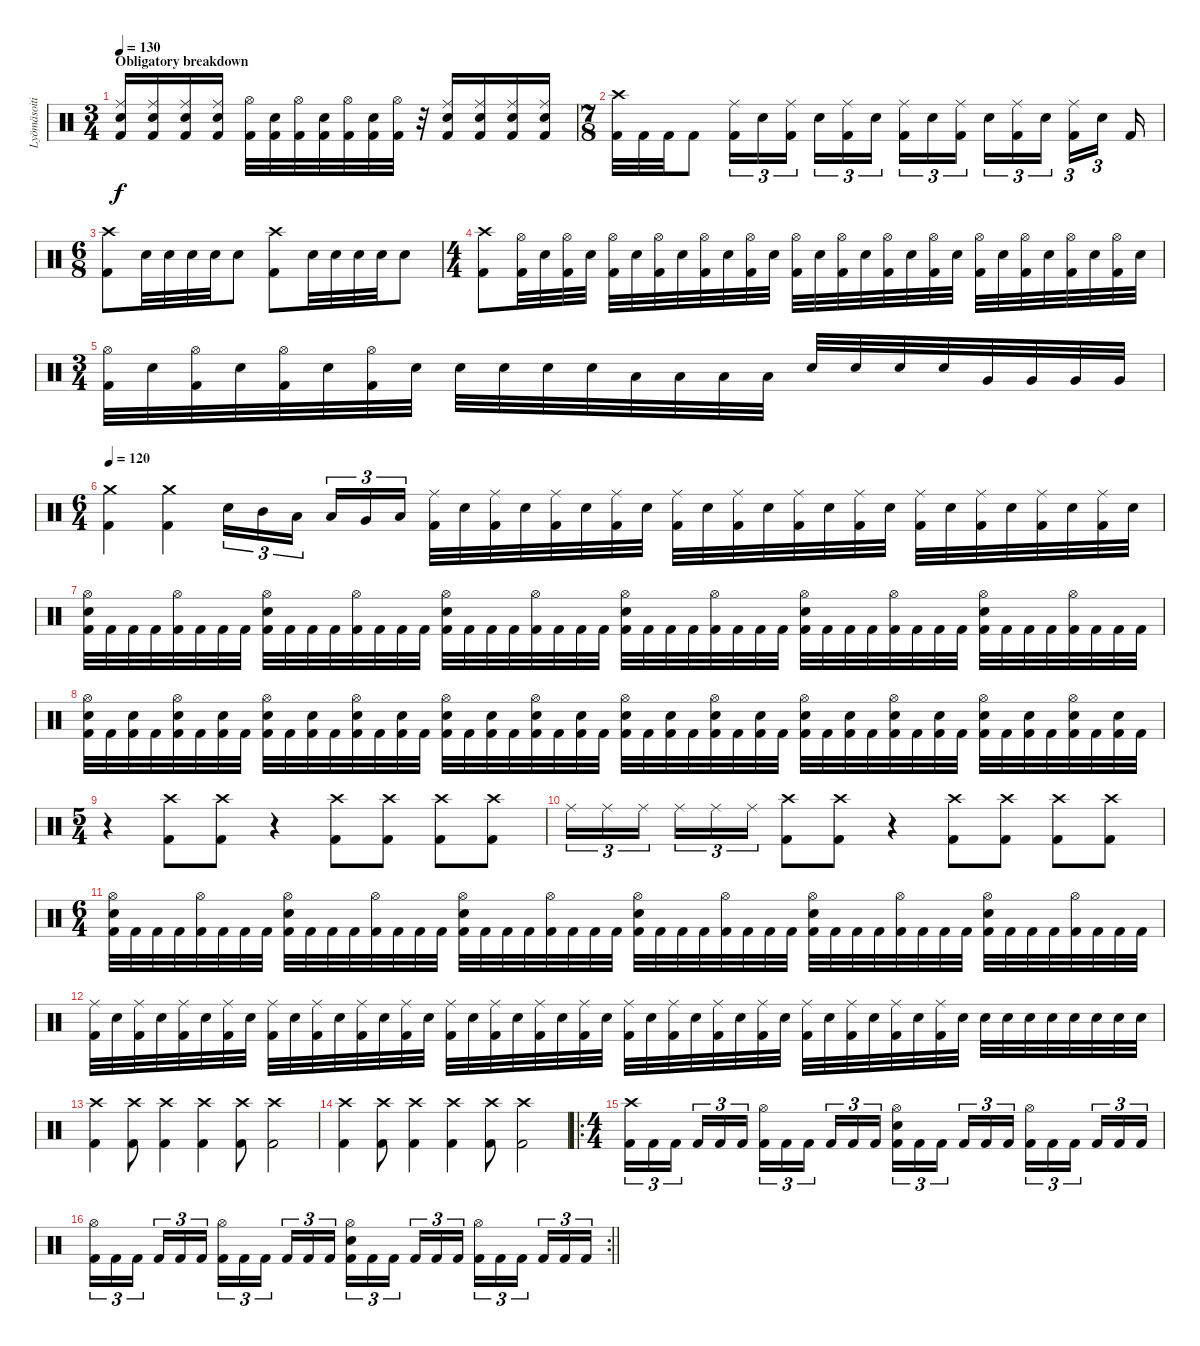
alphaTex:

\track ("Lyömäsoitin" "Lyömäsoiti") {instrument percussion}
\staff {score}
\articulation defaults
\ts (3 4)
\section ("" "Obligatory breakdown")
\tempo 130
\clef neutral
\ks c
("Electric Snare (hit)" "Ride (middle)" "Kick (hit) 2").16{dy f} ("Electric Snare (hit)" "Ride (middle)" "Kick (hit) 2").16 ("Electric Snare (hit)" "Ride (middle)" "Kick (hit) 2").16 ("Electric Snare (hit)" "Ride (middle)" "Kick (hit) 2").16 ("Kick (hit) 2" "Hi-Hat (open)").32 ("Kick (hit) 2" "Electric Snare (hit)").32 ("Kick (hit) 2" "Hi-Hat (open)").32 ("Kick (hit) 2" "Electric Snare (hit)").32 ("Kick (hit) 2" "Hi-Hat (open)").32 ("Kick (hit) 2" "Electric Snare (hit)").32 ("Kick (hit) 2" "Hi-Hat (open)").32 r.32 ("Electric Snare (hit)" "Ride (middle)" "Kick (hit) 2").16 ("Electric Snare (hit)" "Ride (middle)" "Kick (hit) 2").16 ("Electric Snare (hit)" "Ride (middle)" "Kick (hit) 2").16 ("Electric Snare (hit)" "Ride (middle)" "Kick (hit) 2").16 |
\ts (7 8)
("Kick (hit) 2" "Crash high (hit)").32 "Kick (hit) 2".32 "Kick (hit) 2".32 "Kick (hit) 2".8 ("Ride (middle)" "Kick (hit) 2").16{tu (3 2)} "Electric Snare (hit)".16{tu (3 2)} ("Ride (middle)" "Kick (hit) 2").16{tu (3 2) beam splitsecondary} "Electric Snare (hit)".16{tu (3 2)} ("Ride (middle)" "Kick (hit) 2").16{tu (3 2)} "Electric Snare (hit)".16{tu (3 2) beam splitsecondary} ("Ride (middle)" "Kick (hit) 2").16{tu (3 2)} "Electric Snare (hit)".16{tu (3 2)} ("Ride (middle)" "Kick (hit) 2").16{tu (3 2) beam splitsecondary} "Electric Snare (hit)".16{tu (3 2)} ("Kick (hit) 2" "Ride (middle)").16{tu (3 2)} "Electric Snare (hit)".16{tu (3 2) beam splitsecondary} ("Kick (hit) 2" "Ride (middle)").16{tu (3 2)} "Electric Snare (hit)".16{tu (3 2)} "Kick (hit) 2".16 |
\ts (6 8)
("Kick (hit) 2" "Crash high (hit)").8 "Electric Snare (hit)".32 "Electric Snare (hit)".32 "Electric Snare (hit)".32 "Electric Snare (hit)".32 "Electric Snare (hit)".8 ("Kick (hit) 2" "Crash high (hit)").8 "Electric Snare (hit)".32 "Electric Snare (hit)".32 "Electric Snare (hit)".32 "Electric Snare (hit)".32 "Electric Snare (hit)".8 |
\ts (4 4)
("Kick (hit) 2" "Crash high (hit)").8 ("Kick (hit) 2" "Hi-Hat (open)").32 "Electric Snare (hit)".32 ("Kick (hit) 2" "Hi-Hat (open)").32 "Electric Snare (hit)".32 ("Kick (hit) 2" "Hi-Hat (open)").32 "Electric Snare (hit)".32 ("Kick (hit) 2" "Hi-Hat (open)").32 "Electric Snare (hit)".32 ("Kick (hit) 2" "Hi-Hat (open)").32 "Electric Snare (hit)".32 ("Kick (hit) 2" "Hi-Hat (open)").32 "Electric Snare (hit)".32 ("Kick (hit) 2" "Hi-Hat (open)").32 "Electric Snare (hit)".32 ("Kick (hit) 2" "Hi-Hat (open)").32 "Electric Snare (hit)".32 ("Kick (hit) 2" "Hi-Hat (open)").32 "Electric Snare (hit)".32 ("Kick (hit) 2" "Hi-Hat (open)").32 "Electric Snare (hit)".32 ("Kick (hit) 2" "Hi-Hat (open)").32 "Electric Snare (hit)".32 ("Kick (hit) 2" "Hi-Hat (open)").32 "Electric Snare (hit)".32 ("Kick (hit) 2" "Hi-Hat (open)").32 "Electric Snare (hit)".32 ("Kick (hit) 2" "Hi-Hat (open)").32 "Electric Snare (hit)".32 |
\ts (3 4)
("Kick (hit) 2" "Hi-Hat (open)").32 "Electric Snare (hit)".32 ("Kick (hit) 2" "Hi-Hat (open)").32 "Electric Snare (hit)".32 ("Kick (hit) 2" "Hi-Hat (open)").32 "Electric Snare (hit)".32 ("Kick (hit) 2" "Hi-Hat (open)").32 "Electric Snare (hit)".32 "Electric Snare (hit)".32 "Electric Snare (hit)".32 "Electric Snare (hit)".32 "Electric Snare (hit)".32 "Low Tom (hit)".32 "Low Tom (hit)".32 "Low Tom (hit)".32 "Low Tom (hit)".32 "Electric Snare (hit)".32 "Electric Snare (hit)".32 "Electric Snare (hit)".32 "Electric Snare (hit)".32 "Very Low Tom (hit)".32 "Very Low Tom (hit)".32 "Very Low Tom (hit)".32 "Very Low Tom (hit)".32 |
\ts (6 4)
\tempo 120
("Kick (hit) 2" "Crash medium (hit)").4 ("Kick (hit) 2" "Crash medium (hit)").4 "Electric Snare (hit)".16{tu (3 2)} "Mid Tom (hit)".16{tu (3 2)} "Low Tom (hit)".16{tu (3 2) beam splitsecondary} "Low Tom (hit)".16{tu (3 2)} "Very Low Tom (hit)".16{tu (3 2)} "Low Floor Tom (hit)".16{tu (3 2)} ("Kick (hit) 2" "Ride (middle)").32 "Electric Snare (hit)".32 ("Kick (hit) 2" "Ride (middle)").32 "Electric Snare (hit)".32 ("Kick (hit) 2" "Ride (middle)").32 "Electric Snare (hit)".32 ("Kick (hit) 2" "Ride (middle)").32 "Electric Snare (hit)".32 ("Kick (hit) 2" "Ride (middle)").32 "Electric Snare (hit)".32 ("Kick (hit) 2" "Ride (middle)").32 "Electric Snare (hit)".32 ("Kick (hit) 2" "Ride (middle)").32 "Electric Snare (hit)".32 ("Kick (hit) 2" "Ride (middle)").32 "Electric Snare (hit)".32 ("Kick (hit) 2" "Ride (middle)").32 "Electric Snare (hit)".32 ("Kick (hit) 2" "Ride (middle)").32 "Electric Snare (hit)".32 ("Kick (hit) 2" "Ride (middle)").32 "Electric Snare (hit)".32 ("Kick (hit) 2" "Ride (middle)").32 "Electric Snare (hit)".32 |
("Kick (hit) 2" "Hi-Hat (open)" "Electric Snare (hit)").32 "Kick (hit) 2".32 "Kick (hit) 2".32 "Kick (hit) 2".32 ("Kick (hit) 2" "Hi-Hat (open)").32 "Kick (hit) 2".32 "Kick (hit) 2".32 "Kick (hit) 2".32 ("Kick (hit) 2" "Hi-Hat (open)" "Electric Snare (hit)").32 "Kick (hit) 2".32 "Kick (hit) 2".32 "Kick (hit) 2".32 ("Kick (hit) 2" "Hi-Hat (open)").32 "Kick (hit) 2".32 "Kick (hit) 2".32 "Kick (hit) 2".32 ("Kick (hit) 2" "Hi-Hat (open)" "Electric Snare (hit)").32 "Kick (hit) 2".32 "Kick (hit) 2".32 "Kick (hit) 2".32 ("Kick (hit) 2" "Hi-Hat (open)").32 "Kick (hit) 2".32 "Kick (hit) 2".32 "Kick (hit) 2".32 ("Kick (hit) 2" "Hi-Hat (open)" "Electric Snare (hit)").32 "Kick (hit) 2".32 "Kick (hit) 2".32 "Kick (hit) 2".32 ("Kick (hit) 2" "Hi-Hat (open)").32 "Kick (hit) 2".32 "Kick (hit) 2".32 "Kick (hit) 2".32 ("Kick (hit) 2" "Hi-Hat (open)" "Electric Snare (hit)").32 "Kick (hit) 2".32 "Kick (hit) 2".32 "Kick (hit) 2".32 ("Kick (hit) 2" "Hi-Hat (open)").32 "Kick (hit) 2".32 "Kick (hit) 2".32 "Kick (hit) 2".32 ("Kick (hit) 2" "Hi-Hat (open)" "Electric Snare (hit)").32 "Kick (hit) 2".32 "Kick (hit) 2".32 "Kick (hit) 2".32 ("Kick (hit) 2" "Hi-Hat (open)").32 "Kick (hit) 2".32 "Kick (hit) 2".32 "Kick (hit) 2".32 |
("Kick (hit) 2" "Hi-Hat (open)" "Electric Snare (hit)").32 "Kick (hit) 2".32 ("Kick (hit) 2" "Electric Snare (hit)").32 "Kick (hit) 2".32 ("Kick (hit) 2" "Hi-Hat (open)" "Electric Snare (hit)").32 "Kick (hit) 2".32 ("Kick (hit) 2" "Electric Snare (hit)").32 "Kick (hit) 2".32 ("Kick (hit) 2" "Hi-Hat (open)" "Electric Snare (hit)").32 "Kick (hit) 2".32 ("Kick (hit) 2" "Electric Snare (hit)").32 "Kick (hit) 2".32 ("Kick (hit) 2" "Hi-Hat (open)" "Electric Snare (hit)").32 "Kick (hit) 2".32 ("Kick (hit) 2" "Electric Snare (hit)").32 "Kick (hit) 2".32 ("Kick (hit) 2" "Hi-Hat (open)" "Electric Snare (hit)").32 "Kick (hit) 2".32 ("Kick (hit) 2" "Electric Snare (hit)").32 "Kick (hit) 2".32 ("Kick (hit) 2" "Hi-Hat (open)" "Electric Snare (hit)").32 "Kick (hit) 2".32 ("Kick (hit) 2" "Electric Snare (hit)").32 "Kick (hit) 2".32 ("Kick (hit) 2" "Hi-Hat (open)" "Electric Snare (hit)").32 "Kick (hit) 2".32 ("Kick (hit) 2" "Electric Snare (hit)").32 "Kick (hit) 2".32 ("Kick (hit) 2" "Hi-Hat (open)" "Electric Snare (hit)").32 "Kick (hit) 2".32 ("Kick (hit) 2" "Electric Snare (hit)").32 "Kick (hit) 2".32 ("Kick (hit) 2" "Hi-Hat (open)" "Electric Snare (hit)").32 "Kick (hit) 2".32 ("Kick (hit) 2" "Electric Snare (hit)").32 "Kick (hit) 2".32 ("Kick (hit) 2" "Hi-Hat (open)" "Electric Snare (hit)").32 "Kick (hit) 2".32 ("Kick (hit) 2" "Electric Snare (hit)").32 "Kick (hit) 2".32 ("Kick (hit) 2" "Hi-Hat (open)" "Electric Snare (hit)").32 "Kick (hit) 2".32 ("Kick (hit) 2" "Electric Snare (hit)").32 "Kick (hit) 2".32 ("Kick (hit) 2" "Hi-Hat (open)" "Electric Snare (hit)").32 "Kick (hit) 2".32 ("Kick (hit) 2" "Electric Snare (hit)").32 "Kick (hit) 2".32 |
\ts (5 4)
r.4 ("Kick (hit) 2" "Crash high (hit)").8 ("Kick (hit) 2" "Crash high (hit)").8 r.4 ("Crash high (hit)" "Kick (hit) 2").8 ("Crash high (hit)" "Kick (hit) 2").8 ("Crash high (hit)" "Kick (hit) 2").8 ("Crash high (hit)" "Kick (hit) 2").8 |
"Ride (middle)".16{tu (3 2)} "Ride (middle)".16{tu (3 2)} "Ride (middle)".16{tu (3 2) beam splitsecondary} "Ride (middle)".16{tu (3 2)} "Ride (middle)".16{tu (3 2)} "Ride (middle)".16{tu (3 2)} ("Kick (hit) 2" "Crash high (hit)").8 ("Kick (hit) 2" "Crash high (hit)").8 r.4 ("Crash high (hit)" "Kick (hit) 2").8 ("Crash high (hit)" "Kick (hit) 2").8 ("Crash high (hit)" "Kick (hit) 2").8 ("Crash high (hit)" "Kick (hit) 2").8 |
\ts (6 4)
("Kick (hit) 2" "Hi-Hat (open)" "Electric Snare (hit)").32 "Kick (hit) 2".32 "Kick (hit) 2".32 "Kick (hit) 2".32 ("Kick (hit) 2" "Hi-Hat (open)").32 "Kick (hit) 2".32 "Kick (hit) 2".32 "Kick (hit) 2".32 ("Kick (hit) 2" "Hi-Hat (open)" "Electric Snare (hit)").32 "Kick (hit) 2".32 "Kick (hit) 2".32 "Kick (hit) 2".32 ("Kick (hit) 2" "Hi-Hat (open)").32 "Kick (hit) 2".32 "Kick (hit) 2".32 "Kick (hit) 2".32 ("Kick (hit) 2" "Hi-Hat (open)" "Electric Snare (hit)").32 "Kick (hit) 2".32 "Kick (hit) 2".32 "Kick (hit) 2".32 ("Kick (hit) 2" "Hi-Hat (open)").32 "Kick (hit) 2".32 "Kick (hit) 2".32 "Kick (hit) 2".32 ("Kick (hit) 2" "Hi-Hat (open)" "Electric Snare (hit)").32 "Kick (hit) 2".32 "Kick (hit) 2".32 "Kick (hit) 2".32 ("Kick (hit) 2" "Hi-Hat (open)").32 "Kick (hit) 2".32 "Kick (hit) 2".32 "Kick (hit) 2".32 ("Kick (hit) 2" "Hi-Hat (open)" "Electric Snare (hit)").32 "Kick (hit) 2".32 "Kick (hit) 2".32 "Kick (hit) 2".32 ("Kick (hit) 2" "Hi-Hat (open)").32 "Kick (hit) 2".32 "Kick (hit) 2".32 "Kick (hit) 2".32 ("Kick (hit) 2" "Hi-Hat (open)" "Electric Snare (hit)").32 "Kick (hit) 2".32 "Kick (hit) 2".32 "Kick (hit) 2".32 ("Kick (hit) 2" "Hi-Hat (open)").32 "Kick (hit) 2".32 "Kick (hit) 2".32 "Kick (hit) 2".32 |
("Ride (middle)" "Kick (hit) 2").32 "Electric Snare (hit)".32 ("Ride (middle)" "Kick (hit) 2").32 "Electric Snare (hit)".32 ("Ride (middle)" "Kick (hit) 2").32 "Electric Snare (hit)".32 ("Ride (middle)" "Kick (hit) 2").32 "Electric Snare (hit)".32 ("Ride (middle)" "Kick (hit) 2").32 "Electric Snare (hit)".32 ("Ride (middle)" "Kick (hit) 2").32 "Electric Snare (hit)".32 ("Ride (middle)" "Kick (hit) 2").32 "Electric Snare (hit)".32 ("Ride (middle)" "Kick (hit) 2").32 "Electric Snare (hit)".32 ("Ride (middle)" "Kick (hit) 2").32 "Electric Snare (hit)".32 ("Ride (middle)" "Kick (hit) 2").32 "Electric Snare (hit)".32 ("Ride (middle)" "Kick (hit) 2").32 "Electric Snare (hit)".32 ("Ride (middle)" "Kick (hit) 2").32 "Electric Snare (hit)".32 ("Ride (middle)" "Kick (hit) 2").32 "Electric Snare (hit)".32 ("Ride (middle)" "Kick (hit) 2").32 "Electric Snare (hit)".32 ("Ride (middle)" "Kick (hit) 2").32 "Electric Snare (hit)".32 ("Ride (middle)" "Kick (hit) 2").32 "Electric Snare (hit)".32 ("Ride (middle)" "Kick (hit) 2").32 "Electric Snare (hit)".32 ("Ride (middle)" "Kick (hit) 2").32 "Electric Snare (hit)".32 ("Ride (middle)" "Kick (hit) 2").32 "Electric Snare (hit)".32 ("Ride (middle)" "Kick (hit) 2").32 "Electric Snare (hit)".32 "Electric Snare (hit)".32 "Electric Snare (hit)".32 "Electric Snare (hit)".32 "Electric Snare (hit)".32 "Electric Snare (hit)".32 "Electric Snare (hit)".32 "Electric Snare (hit)".32 "Electric Snare (hit)".32 |
("Kick (hit) 2" "Crash high (hit)").4 ("Kick (hit) 2" "Crash high (hit)").8 ("Kick (hit) 2" "Crash high (hit)").4 ("Kick (hit) 2" "Crash high (hit)").4 ("Kick (hit) 2" "Crash high (hit)").8 ("Kick (hit) 2" "Crash high (hit)").2 |
("Kick (hit) 2" "Crash high (hit)").4 ("Kick (hit) 2" "Crash high (hit)").8 ("Kick (hit) 2" "Crash high (hit)").4 ("Kick (hit) 2" "Crash high (hit)").4 ("Kick (hit) 2" "Crash high (hit)").8 ("Kick (hit) 2" "Crash high (hit)").2 |
\ro
\ts (4 4)
("Kick (hit) 2" "Crash high (hit)").16{tu (3 2)} "Kick (hit) 2".16{tu (3 2)} "Kick (hit) 2".16{tu (3 2) beam splitsecondary} "Kick (hit) 2".16{tu (3 2)} "Kick (hit) 2".16{tu (3 2)} "Kick (hit) 2".16{tu (3 2)} ("Kick (hit) 2" "Hi-Hat (open)").16{tu (3 2)} "Kick (hit) 2".16{tu (3 2)} "Kick (hit) 2".16{tu (3 2) beam splitsecondary} "Kick (hit) 2".16{tu (3 2)} "Kick (hit) 2".16{tu (3 2)} "Kick (hit) 2".16{tu (3 2)} ("Kick (hit) 2" "Electric Snare (hit)" "Hi-Hat (open)").16{tu (3 2)} "Kick (hit) 2".16{tu (3 2)} "Kick (hit) 2".16{tu (3 2) beam splitsecondary} "Kick (hit) 2".16{tu (3 2)} "Kick (hit) 2".16{tu (3 2)} "Kick (hit) 2".16{tu (3 2)} ("Kick (hit) 2" "Hi-Hat (open)").16{tu (3 2)} "Kick (hit) 2".16{tu (3 2)} "Kick (hit) 2".16{tu (3 2) beam splitsecondary} "Kick (hit) 2".16{tu (3 2)} "Kick (hit) 2".16{tu (3 2)} "Kick (hit) 2".16{tu (3 2)} |
\rc 2
\barLineRight lightlight
("Kick (hit) 2" "Hi-Hat (open)").16{tu (3 2)} "Kick (hit) 2".16{tu (3 2)} "Kick (hit) 2".16{tu (3 2) beam splitsecondary} "Kick (hit) 2".16{tu (3 2)} "Kick (hit) 2".16{tu (3 2)} "Kick (hit) 2".16{tu (3 2)} ("Kick (hit) 2" "Hi-Hat (open)").16{tu (3 2)} "Kick (hit) 2".16{tu (3 2)} "Kick (hit) 2".16{tu (3 2) beam splitsecondary} "Kick (hit) 2".16{tu (3 2)} "Kick (hit) 2".16{tu (3 2)} "Kick (hit) 2".16{tu (3 2)} ("Kick (hit) 2" "Electric Snare (hit)" "Hi-Hat (open)").16{tu (3 2)} "Kick (hit) 2".16{tu (3 2)} "Kick (hit) 2".16{tu (3 2) beam splitsecondary} "Kick (hit) 2".16{tu (3 2)} "Kick (hit) 2".16{tu (3 2)} "Kick (hit) 2".16{tu (3 2)} ("Kick (hit) 2" "Hi-Hat (open)").16{tu (3 2)} "Kick (hit) 2".16{tu (3 2)} "Kick (hit) 2".16{tu (3 2) beam splitsecondary} "Kick (hit) 2".16{tu (3 2)} "Kick (hit) 2".16{tu (3 2)} "Kick (hit) 2".16{tu (3 2)}
